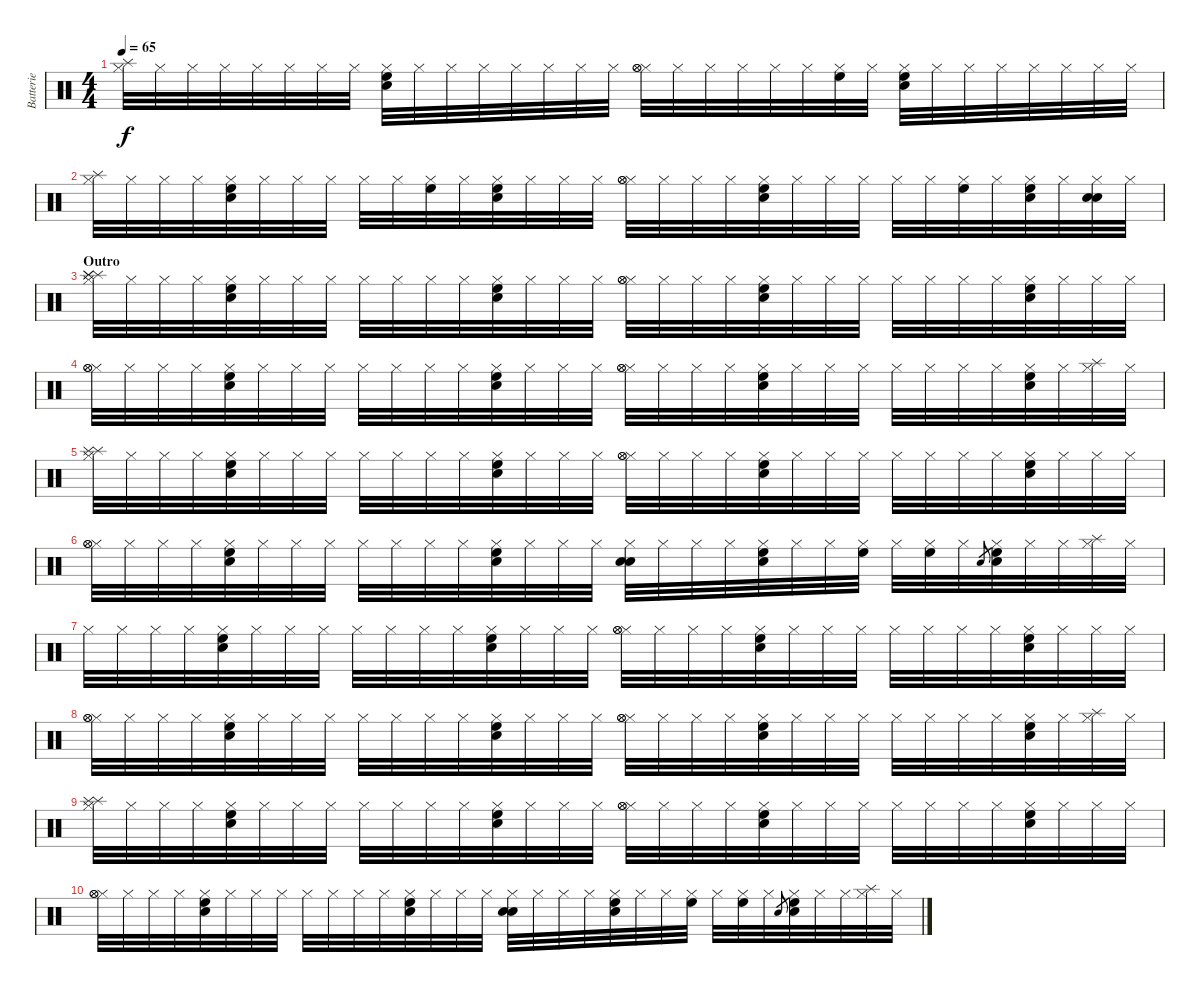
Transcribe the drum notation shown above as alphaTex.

\track ("Batterie" "Batterie") {instrument percussion}
\staff {score}
\articulation defaults
\ts (4 4)
\tempo 65
\clef neutral
\ks c
("Hi-Hat (closed)" "Splash (hit)").32{dy f} "Hi-Hat (closed)".32 "Hi-Hat (closed)".32 "Hi-Hat (closed)".32 "Hi-Hat (closed)".32 "Hi-Hat (closed)".32 "Hi-Hat (closed)".32 "Hi-Hat (closed)".32 ("Hi-Hat (closed)" "Snare (hit) 2" "High Floor Tom (hit)").32 "Hi-Hat (closed)".32 "Hi-Hat (closed)".32 "Hi-Hat (closed)".32 "Hi-Hat (closed)".32 "Hi-Hat (closed)".32 "Hi-Hat (closed)".32 "Hi-Hat (closed)".32 ("Hi-Hat (closed)" "Hi-Hat (open)" "Hi-Hat (open)").32 "Hi-Hat (closed)".32 "Hi-Hat (closed)".32 "Hi-Hat (closed)".32 "Hi-Hat (closed)".32 "Hi-Hat (closed)".32 ("Hi-Hat (closed)" "High Floor Tom (hit)").32 "Hi-Hat (closed)".32 ("Hi-Hat (closed)" "Snare (hit) 2" "High Floor Tom (hit)").32 "Hi-Hat (closed)".32 "Hi-Hat (closed)".32 "Hi-Hat (closed)".32 "Hi-Hat (closed)".32 "Hi-Hat (closed)".32 "Hi-Hat (closed)".32 "Hi-Hat (closed)".32 |
("Hi-Hat (closed)" "Splash (hit)").32 "Hi-Hat (closed)".32 "Hi-Hat (closed)".32 "Hi-Hat (closed)".32 ("Hi-Hat (closed)" "Snare (hit) 2" "High Floor Tom (hit)").32 "Hi-Hat (closed)".32 "Hi-Hat (closed)".32 "Hi-Hat (closed)".32 "Hi-Hat (closed)".32 "Hi-Hat (closed)".32 ("Hi-Hat (closed)" "High Floor Tom (hit)").32 "Hi-Hat (closed)".32 ("Hi-Hat (closed)" "Snare (hit) 2" "High Floor Tom (hit)").32 "Hi-Hat (closed)".32 "Hi-Hat (closed)".32 "Hi-Hat (closed)".32 ("Hi-Hat (closed)" "Hi-Hat (open)" "Hi-Hat (open)").32 "Hi-Hat (closed)".32 "Hi-Hat (closed)".32 "Hi-Hat (closed)".32 ("Hi-Hat (closed)" "Snare (hit) 2" "High Floor Tom (hit)").32 "Hi-Hat (closed)".32 "Hi-Hat (closed)".32 "Hi-Hat (closed)".32 "Hi-Hat (closed)".32 "Hi-Hat (closed)".32 ("Hi-Hat (closed)" "High Floor Tom (hit)").32 "Hi-Hat (closed)".32 ("Hi-Hat (closed)" "Snare (hit) 2" "High Floor Tom (hit)").32 "Hi-Hat (closed)".32 ("Hi-Hat (closed)" "Snare (hit) 2" "Snare (hit) 2").32 "Hi-Hat (closed)".32 |
\section ("" "Outro")
("Hi-Hat (closed)" "Splash (hit)" "Splash (hit)" "Splash (hit)").32 "Hi-Hat (closed)".32 "Hi-Hat (closed)".32 "Hi-Hat (closed)".32 ("Hi-Hat (closed)" "Snare (hit) 2" "High Floor Tom (hit)").32 "Hi-Hat (closed)".32 "Hi-Hat (closed)".32 "Hi-Hat (closed)".32 "Hi-Hat (closed)".32 "Hi-Hat (closed)".32 "Hi-Hat (closed)".32 "Hi-Hat (closed)".32 ("Hi-Hat (closed)" "Snare (hit) 2" "High Floor Tom (hit)").32 "Hi-Hat (closed)".32 "Hi-Hat (closed)".32 "Hi-Hat (closed)".32 ("Hi-Hat (closed)" "Hi-Hat (open)" "Hi-Hat (open)").32 "Hi-Hat (closed)".32 "Hi-Hat (closed)".32 "Hi-Hat (closed)".32 ("Hi-Hat (closed)" "Snare (hit) 2" "High Floor Tom (hit)").32 "Hi-Hat (closed)".32 "Hi-Hat (closed)".32 "Hi-Hat (closed)".32 "Hi-Hat (closed)".32 "Hi-Hat (closed)".32 "Hi-Hat (closed)".32 "Hi-Hat (closed)".32 ("Hi-Hat (closed)" "Snare (hit) 2" "High Floor Tom (hit)").32 "Hi-Hat (closed)".32 "Hi-Hat (closed)".32 "Hi-Hat (closed)".32 |
("Hi-Hat (closed)" "Hi-Hat (open)" "Hi-Hat (open)").32 "Hi-Hat (closed)".32 "Hi-Hat (closed)".32 "Hi-Hat (closed)".32 ("Hi-Hat (closed)" "Snare (hit) 2" "High Floor Tom (hit)").32 "Hi-Hat (closed)".32 "Hi-Hat (closed)".32 "Hi-Hat (closed)".32 "Hi-Hat (closed)".32 "Hi-Hat (closed)".32 "Hi-Hat (closed)".32 "Hi-Hat (closed)".32 ("Hi-Hat (closed)" "Snare (hit) 2" "High Floor Tom (hit)").32 "Hi-Hat (closed)".32 "Hi-Hat (closed)".32 "Hi-Hat (closed)".32 ("Hi-Hat (closed)" "Hi-Hat (open)" "Hi-Hat (open)").32 "Hi-Hat (closed)".32 "Hi-Hat (closed)".32 "Hi-Hat (closed)".32 ("Hi-Hat (closed)" "Snare (hit) 2" "High Floor Tom (hit)").32 "Hi-Hat (closed)".32 "Hi-Hat (closed)".32 "Hi-Hat (closed)".32 "Hi-Hat (closed)".32 "Hi-Hat (closed)".32 "Hi-Hat (closed)".32 "Hi-Hat (closed)".32 ("Hi-Hat (closed)" "Snare (hit) 2" "High Floor Tom (hit)").32 "Hi-Hat (closed)".32 ("Hi-Hat (closed)" "Splash (hit)").32 "Hi-Hat (closed)".32 |
("Hi-Hat (closed)" "Splash (hit)" "Splash (hit)").32{volume 13} "Hi-Hat (closed)".32 "Hi-Hat (closed)".32 "Hi-Hat (closed)".32 ("Hi-Hat (closed)" "Snare (hit) 2" "High Floor Tom (hit)").32 "Hi-Hat (closed)".32 "Hi-Hat (closed)".32 "Hi-Hat (closed)".32 "Hi-Hat (closed)".32 "Hi-Hat (closed)".32 "Hi-Hat (closed)".32 "Hi-Hat (closed)".32 ("Hi-Hat (closed)" "Snare (hit) 2" "High Floor Tom (hit)").32 "Hi-Hat (closed)".32 "Hi-Hat (closed)".32 "Hi-Hat (closed)".32 ("Hi-Hat (closed)" "Hi-Hat (open)" "Hi-Hat (open)").32 "Hi-Hat (closed)".32 "Hi-Hat (closed)".32 "Hi-Hat (closed)".32 ("Hi-Hat (closed)" "Snare (hit) 2" "High Floor Tom (hit)").32 "Hi-Hat (closed)".32 "Hi-Hat (closed)".32 "Hi-Hat (closed)".32 "Hi-Hat (closed)".32 "Hi-Hat (closed)".32 "Hi-Hat (closed)".32 "Hi-Hat (closed)".32 ("Hi-Hat (closed)" "Snare (hit) 2" "High Floor Tom (hit)").32 "Hi-Hat (closed)".32 "Hi-Hat (closed)".32 "Hi-Hat (closed)".32 |
("Hi-Hat (closed)" "Hi-Hat (open)" "Hi-Hat (open)").32{volume 10} "Hi-Hat (closed)".32 "Hi-Hat (closed)".32 "Hi-Hat (closed)".32 ("Hi-Hat (closed)" "Snare (hit) 2" "High Floor Tom (hit)").32 "Hi-Hat (closed)".32 "Hi-Hat (closed)".32 "Hi-Hat (closed)".32 "Hi-Hat (closed)".32 "Hi-Hat (closed)".32 "Hi-Hat (closed)".32 "Hi-Hat (closed)".32 ("Hi-Hat (closed)" "Snare (hit) 2" "High Floor Tom (hit)").32 "Hi-Hat (closed)".32 "Hi-Hat (closed)".32 "Hi-Hat (closed)".32 ("Hi-Hat (closed)" "Snare (hit) 2" "Snare (hit) 2").32 "Hi-Hat (closed)".32 "Hi-Hat (closed)".32 "Hi-Hat (closed)".32 ("Hi-Hat (closed)" "Snare (hit) 2" "High Floor Tom (hit)").32 "Hi-Hat (closed)".32 "Hi-Hat (closed)".32 ("Hi-Hat (closed)" "High Floor Tom (hit)").32 "Hi-Hat (closed)".32 ("Hi-Hat (closed)" "High Floor Tom (hit)").32 "Hi-Hat (closed)".32 "Snare (hit) 2".8{gr} ("Hi-Hat (closed)" "Snare (hit) 2" "High Floor Tom (hit)").32 "Hi-Hat (closed)".32 "Hi-Hat (closed)".32 ("Hi-Hat (closed)" "Splash (hit)").32 "Hi-Hat (closed)".32 |
"Hi-Hat (closed)".32{volume 7} "Hi-Hat (closed)".32 "Hi-Hat (closed)".32 "Hi-Hat (closed)".32 ("Hi-Hat (closed)" "Snare (hit) 2" "High Floor Tom (hit)").32 "Hi-Hat (closed)".32 "Hi-Hat (closed)".32 "Hi-Hat (closed)".32 "Hi-Hat (closed)".32 "Hi-Hat (closed)".32 "Hi-Hat (closed)".32 "Hi-Hat (closed)".32 ("Hi-Hat (closed)" "Snare (hit) 2" "High Floor Tom (hit)").32 "Hi-Hat (closed)".32 "Hi-Hat (closed)".32 "Hi-Hat (closed)".32 ("Hi-Hat (closed)" "Hi-Hat (open)" "Hi-Hat (open)").32 "Hi-Hat (closed)".32 "Hi-Hat (closed)".32 "Hi-Hat (closed)".32 ("Hi-Hat (closed)" "Snare (hit) 2" "High Floor Tom (hit)").32 "Hi-Hat (closed)".32 "Hi-Hat (closed)".32 "Hi-Hat (closed)".32 "Hi-Hat (closed)".32 "Hi-Hat (closed)".32 "Hi-Hat (closed)".32 "Hi-Hat (closed)".32 ("Hi-Hat (closed)" "Snare (hit) 2" "High Floor Tom (hit)").32 "Hi-Hat (closed)".32 "Hi-Hat (closed)".32 "Hi-Hat (closed)".32 |
("Hi-Hat (closed)" "Hi-Hat (open)" "Hi-Hat (open)").32{volume 4} "Hi-Hat (closed)".32 "Hi-Hat (closed)".32 "Hi-Hat (closed)".32 ("Hi-Hat (closed)" "Snare (hit) 2" "High Floor Tom (hit)").32 "Hi-Hat (closed)".32 "Hi-Hat (closed)".32 "Hi-Hat (closed)".32 "Hi-Hat (closed)".32 "Hi-Hat (closed)".32 "Hi-Hat (closed)".32 "Hi-Hat (closed)".32 ("Hi-Hat (closed)" "Snare (hit) 2" "High Floor Tom (hit)").32 "Hi-Hat (closed)".32 "Hi-Hat (closed)".32 "Hi-Hat (closed)".32 ("Hi-Hat (closed)" "Hi-Hat (open)" "Hi-Hat (open)").32 "Hi-Hat (closed)".32 "Hi-Hat (closed)".32 "Hi-Hat (closed)".32 ("Hi-Hat (closed)" "Snare (hit) 2" "High Floor Tom (hit)").32 "Hi-Hat (closed)".32 "Hi-Hat (closed)".32 "Hi-Hat (closed)".32 "Hi-Hat (closed)".32 "Hi-Hat (closed)".32 "Hi-Hat (closed)".32 "Hi-Hat (closed)".32 ("Hi-Hat (closed)" "Snare (hit) 2" "High Floor Tom (hit)").32 "Hi-Hat (closed)".32 ("Hi-Hat (closed)" "Splash (hit)").32 "Hi-Hat (closed)".32 |
("Hi-Hat (closed)" "Splash (hit)" "Splash (hit)").32{volume 2} "Hi-Hat (closed)".32 "Hi-Hat (closed)".32 "Hi-Hat (closed)".32 ("Hi-Hat (closed)" "Snare (hit) 2" "High Floor Tom (hit)").32 "Hi-Hat (closed)".32 "Hi-Hat (closed)".32 "Hi-Hat (closed)".32 "Hi-Hat (closed)".32 "Hi-Hat (closed)".32 "Hi-Hat (closed)".32 "Hi-Hat (closed)".32 ("Hi-Hat (closed)" "Snare (hit) 2" "High Floor Tom (hit)").32 "Hi-Hat (closed)".32 "Hi-Hat (closed)".32 "Hi-Hat (closed)".32 ("Hi-Hat (closed)" "Hi-Hat (open)" "Hi-Hat (open)").32 "Hi-Hat (closed)".32 "Hi-Hat (closed)".32 "Hi-Hat (closed)".32 ("Hi-Hat (closed)" "Snare (hit) 2" "High Floor Tom (hit)").32 "Hi-Hat (closed)".32 "Hi-Hat (closed)".32 "Hi-Hat (closed)".32 "Hi-Hat (closed)".32 "Hi-Hat (closed)".32 "Hi-Hat (closed)".32 "Hi-Hat (closed)".32 ("Hi-Hat (closed)" "Snare (hit) 2" "High Floor Tom (hit)").32 "Hi-Hat (closed)".32 "Hi-Hat (closed)".32 "Hi-Hat (closed)".32 |
("Hi-Hat (closed)" "Hi-Hat (open)" "Hi-Hat (open)").32{volume 0} "Hi-Hat (closed)".32 "Hi-Hat (closed)".32 "Hi-Hat (closed)".32 ("Hi-Hat (closed)" "Snare (hit) 2" "High Floor Tom (hit)").32 "Hi-Hat (closed)".32 "Hi-Hat (closed)".32 "Hi-Hat (closed)".32 "Hi-Hat (closed)".32 "Hi-Hat (closed)".32 "Hi-Hat (closed)".32 "Hi-Hat (closed)".32 ("Hi-Hat (closed)" "Snare (hit) 2" "High Floor Tom (hit)").32 "Hi-Hat (closed)".32 "Hi-Hat (closed)".32 "Hi-Hat (closed)".32 ("Hi-Hat (closed)" "Snare (hit) 2" "Snare (hit) 2").32 "Hi-Hat (closed)".32 "Hi-Hat (closed)".32 "Hi-Hat (closed)".32 ("Hi-Hat (closed)" "Snare (hit) 2" "High Floor Tom (hit)").32 "Hi-Hat (closed)".32 "Hi-Hat (closed)".32 ("Hi-Hat (closed)" "High Floor Tom (hit)").32 "Hi-Hat (closed)".32 ("Hi-Hat (closed)" "High Floor Tom (hit)").32 "Hi-Hat (closed)".32 "Snare (hit) 2".8{gr} ("Hi-Hat (closed)" "Snare (hit) 2" "High Floor Tom (hit)").32 "Hi-Hat (closed)".32 "Hi-Hat (closed)".32 ("Hi-Hat (closed)" "Splash (hit)").32 "Hi-Hat (closed)".32
